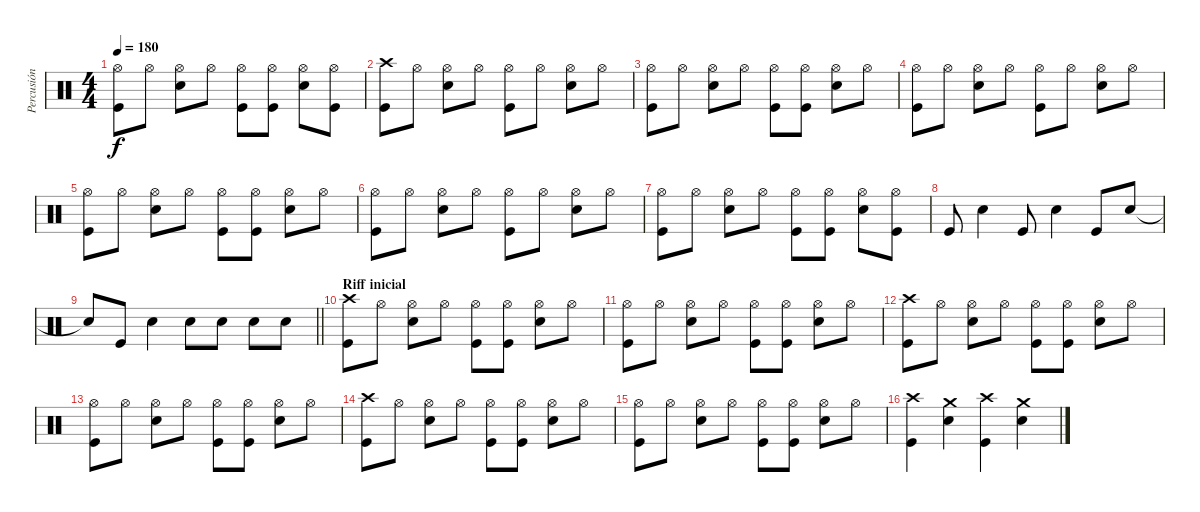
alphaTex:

\track ("Percusión" "Percusión") {instrument percussion}
\staff {score}
\articulation defaults
\ts (4 4)
\tempo 180
\clef neutral
\ks c
("Hi-Hat (open)" "Kick (hit)").8{dy f} "Hi-Hat (open)".8 ("Hi-Hat (open)" "Electric Snare (hit)").8 "Hi-Hat (open)".8 ("Hi-Hat (open)" "Kick (hit)").8 ("Hi-Hat (open)" "Kick (hit)").8 ("Hi-Hat (open)" "Electric Snare (hit)").8 ("Hi-Hat (open)" "Kick (hit)").8 |
("Crash high (hit)" "Kick (hit)").8 "Hi-Hat (open)".8 ("Hi-Hat (open)" "Electric Snare (hit)").8 "Hi-Hat (open)".8 ("Hi-Hat (open)" "Kick (hit)").8 "Hi-Hat (open)".8 ("Hi-Hat (open)" "Electric Snare (hit)").8 "Hi-Hat (open)".8 |
("Hi-Hat (open)" "Kick (hit)").8 "Hi-Hat (open)".8 ("Hi-Hat (open)" "Electric Snare (hit)").8 "Hi-Hat (open)".8 ("Hi-Hat (open)" "Kick (hit)").8 ("Hi-Hat (open)" "Kick (hit)").8 ("Hi-Hat (open)" "Electric Snare (hit)").8 "Hi-Hat (open)".8 |
("Hi-Hat (open)" "Kick (hit)").8 "Hi-Hat (open)".8 ("Hi-Hat (open)" "Electric Snare (hit)").8 "Hi-Hat (open)".8 ("Hi-Hat (open)" "Kick (hit)").8 "Hi-Hat (open)".8 ("Hi-Hat (open)" "Electric Snare (hit)").8 "Hi-Hat (open)".8 |
("Hi-Hat (open)" "Kick (hit)").8 "Hi-Hat (open)".8 ("Hi-Hat (open)" "Electric Snare (hit)").8 "Hi-Hat (open)".8 ("Hi-Hat (open)" "Kick (hit)").8 ("Hi-Hat (open)" "Kick (hit)").8 ("Hi-Hat (open)" "Electric Snare (hit)").8 "Hi-Hat (open)".8 |
("Hi-Hat (open)" "Kick (hit)").8 "Hi-Hat (open)".8 ("Hi-Hat (open)" "Electric Snare (hit)").8 "Hi-Hat (open)".8 ("Hi-Hat (open)" "Kick (hit)").8 "Hi-Hat (open)".8 ("Hi-Hat (open)" "Electric Snare (hit)").8 "Hi-Hat (open)".8 |
("Hi-Hat (open)" "Kick (hit)").8 "Hi-Hat (open)".8 ("Hi-Hat (open)" "Electric Snare (hit)").8 "Hi-Hat (open)".8 ("Hi-Hat (open)" "Kick (hit)").8 ("Hi-Hat (open)" "Kick (hit)").8 ("Hi-Hat (open)" "Electric Snare (hit)").8 ("Hi-Hat (open)" "Kick (hit)").8 |
"Kick (hit)".8 "Electric Snare (hit)".4 "Kick (hit)".8 "Electric Snare (hit)".4 "Kick (hit)".8 "Electric Snare (hit)".8 |
\barLineRight lightlight "Snare (hit)"{t}.8 "Kick (hit)".8 "Electric Snare (hit)".4 "Electric Snare (hit)".8 "Electric Snare (hit)".8 "Electric Snare (hit)".8 "Electric Snare (hit)".8
|
\section ("" "Riff inicial")
("Crash high (hit)" "Kick (hit)").8 "Hi-Hat (open)".8 ("Hi-Hat (open)" "Electric Snare (hit)").8 "Hi-Hat (open)".8 ("Hi-Hat (open)" "Kick (hit)").8 ("Hi-Hat (open)" "Kick (hit)").8 ("Hi-Hat (open)" "Electric Snare (hit)").8 "Hi-Hat (open)".8 |
("Hi-Hat (open)" "Kick (hit)").8 "Hi-Hat (open)".8 ("Hi-Hat (open)" "Electric Snare (hit)").8 "Hi-Hat (open)".8 ("Hi-Hat (open)" "Kick (hit)").8 ("Hi-Hat (open)" "Kick (hit)").8 ("Hi-Hat (open)" "Electric Snare (hit)").8 "Hi-Hat (open)".8 |
("Crash high (hit)" "Kick (hit)").8 "Hi-Hat (open)".8 ("Hi-Hat (open)" "Electric Snare (hit)").8 "Hi-Hat (open)".8 ("Hi-Hat (open)" "Kick (hit)").8 ("Hi-Hat (open)" "Kick (hit)").8 ("Hi-Hat (open)" "Electric Snare (hit)").8 "Hi-Hat (open)".8 |
("Hi-Hat (open)" "Kick (hit)").8 "Hi-Hat (open)".8 ("Hi-Hat (open)" "Electric Snare (hit)").8 "Hi-Hat (open)".8 ("Hi-Hat (open)" "Kick (hit)").8 ("Hi-Hat (open)" "Kick (hit)").8 ("Hi-Hat (open)" "Electric Snare (hit)").8 "Hi-Hat (open)".8 |
("Crash high (hit)" "Kick (hit)").8 "Hi-Hat (open)".8 ("Hi-Hat (open)" "Electric Snare (hit)").8 "Hi-Hat (open)".8 ("Hi-Hat (open)" "Kick (hit)").8 ("Hi-Hat (open)" "Kick (hit)").8 ("Hi-Hat (open)" "Electric Snare (hit)").8 "Hi-Hat (open)".8 |
("Hi-Hat (open)" "Kick (hit)").8 "Hi-Hat (open)".8 ("Hi-Hat (open)" "Electric Snare (hit)").8 "Hi-Hat (open)".8 ("Hi-Hat (open)" "Kick (hit)").8 ("Hi-Hat (open)" "Kick (hit)").8 ("Hi-Hat (open)" "Electric Snare (hit)").8 "Hi-Hat (open)".8 |
("Crash high (hit)" "Kick (hit)").4 ("Crash medium (hit)" "Electric Snare (hit)").4 ("Crash high (hit)" "Kick (hit)").4 ("Crash medium (hit)" "Electric Snare (hit)").4
